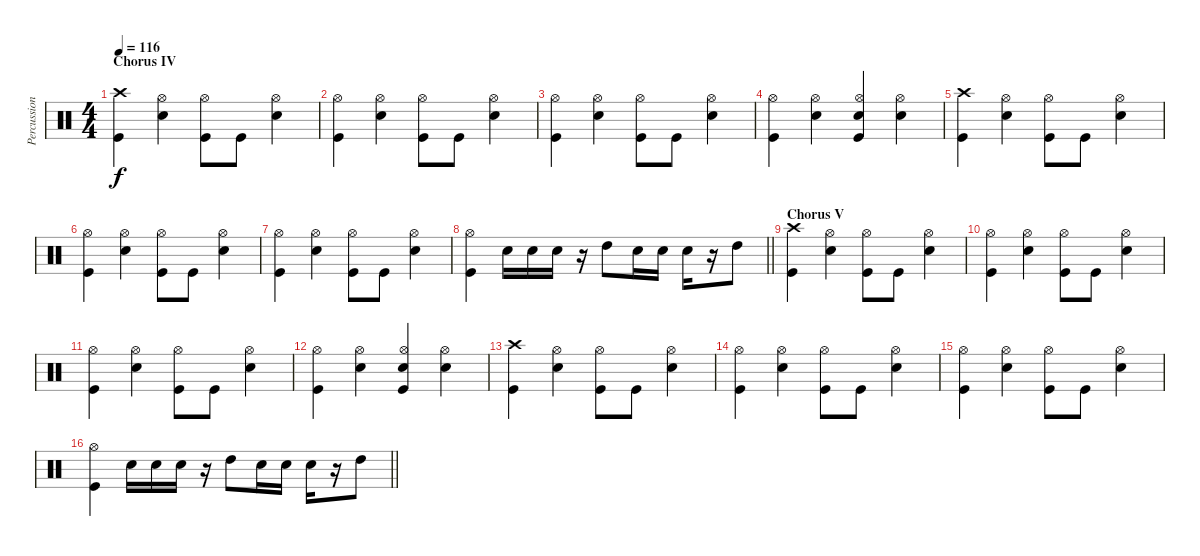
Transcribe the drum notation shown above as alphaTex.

\track ("Percussions" "Percussion") {instrument percussion}
\staff {score}
\articulation defaults
\ts (4 4)
\section ("" "Chorus IV")
\tempo 116
\clef neutral
\ks c
("Crash high (hit)" "Kick (hit)").4{dy f} ("Hi-Hat (open)" "Snare (hit) 2").4 ("Hi-Hat (open)" "Kick (hit)").8 "Kick (hit)".8 ("Hi-Hat (open)" "Snare (hit) 2").4 |
("Hi-Hat (open)" "Kick (hit)").4 ("Hi-Hat (open)" "Snare (hit) 2").4 ("Hi-Hat (open)" "Kick (hit)").8 "Kick (hit)".8 ("Hi-Hat (open)" "Snare (hit) 2").4 |
("Hi-Hat (open)" "Kick (hit)").4 ("Hi-Hat (open)" "Snare (hit) 2").4 ("Hi-Hat (open)" "Kick (hit)").8 "Kick (hit)".8 ("Hi-Hat (open)" "Snare (hit) 2").4 |
("Hi-Hat (open)" "Kick (hit)").4 ("Hi-Hat (open)" "Snare (hit) 2").4 ("Hi-Hat (open)" "Snare (hit) 2" "Kick (hit)").4 ("Hi-Hat (open)" "Snare (hit) 2").4 |
("Crash high (hit)" "Kick (hit)").4 ("Hi-Hat (open)" "Snare (hit) 2").4 ("Hi-Hat (open)" "Kick (hit)").8 "Kick (hit)".8 ("Hi-Hat (open)" "Snare (hit) 2").4 |
("Hi-Hat (open)" "Kick (hit)").4 ("Hi-Hat (open)" "Snare (hit) 2").4 ("Hi-Hat (open)" "Kick (hit)").8 "Kick (hit)".8 ("Hi-Hat (open)" "Snare (hit) 2").4 |
("Hi-Hat (open)" "Kick (hit)").4 ("Hi-Hat (open)" "Snare (hit) 2").4 ("Hi-Hat (open)" "Kick (hit)").8 "Kick (hit)".8 ("Hi-Hat (open)" "Snare (hit) 2").4 |
\barLineRight lightlight
("Hi-Hat (open)" "Kick (hit)").4 "Snare (hit) 2".16 "Snare (hit) 2".16 "Snare (hit) 2".16 r.16 "High Tom (hit)".8 "Snare (hit) 2".16 "Snare (hit) 2".16 "Snare (hit) 2".16 r.16 "High Tom (hit)".8 |
\section ("" "Chorus V")
("Crash high (hit)" "Kick (hit)").4 ("Hi-Hat (open)" "Snare (hit) 2").4 ("Hi-Hat (open)" "Kick (hit)").8 "Kick (hit)".8 ("Hi-Hat (open)" "Snare (hit) 2").4 |
("Hi-Hat (open)" "Kick (hit)").4 ("Hi-Hat (open)" "Snare (hit) 2").4 ("Hi-Hat (open)" "Kick (hit)").8 "Kick (hit)".8 ("Hi-Hat (open)" "Snare (hit) 2").4 |
("Hi-Hat (open)" "Kick (hit)").4 ("Hi-Hat (open)" "Snare (hit) 2").4 ("Hi-Hat (open)" "Kick (hit)").8 "Kick (hit)".8 ("Hi-Hat (open)" "Snare (hit) 2").4 |
("Hi-Hat (open)" "Kick (hit)").4 ("Hi-Hat (open)" "Snare (hit) 2").4 ("Hi-Hat (open)" "Snare (hit) 2" "Kick (hit)").4 ("Hi-Hat (open)" "Snare (hit) 2").4 |
("Crash high (hit)" "Kick (hit)").4 ("Hi-Hat (open)" "Snare (hit) 2").4 ("Hi-Hat (open)" "Kick (hit)").8 "Kick (hit)".8 ("Hi-Hat (open)" "Snare (hit) 2").4 |
("Hi-Hat (open)" "Kick (hit)").4 ("Hi-Hat (open)" "Snare (hit) 2").4 ("Hi-Hat (open)" "Kick (hit)").8 "Kick (hit)".8 ("Hi-Hat (open)" "Snare (hit) 2").4 |
("Hi-Hat (open)" "Kick (hit)").4 ("Hi-Hat (open)" "Snare (hit) 2").4 ("Hi-Hat (open)" "Kick (hit)").8 "Kick (hit)".8 ("Hi-Hat (open)" "Snare (hit) 2").4 |
\barLineRight lightlight
("Hi-Hat (open)" "Kick (hit)").4 "Snare (hit) 2".16 "Snare (hit) 2".16 "Snare (hit) 2".16 r.16 "High Tom (hit)".8 "Snare (hit) 2".16 "Snare (hit) 2".16 "Snare (hit) 2".16 r.16 "High Tom (hit)".8
